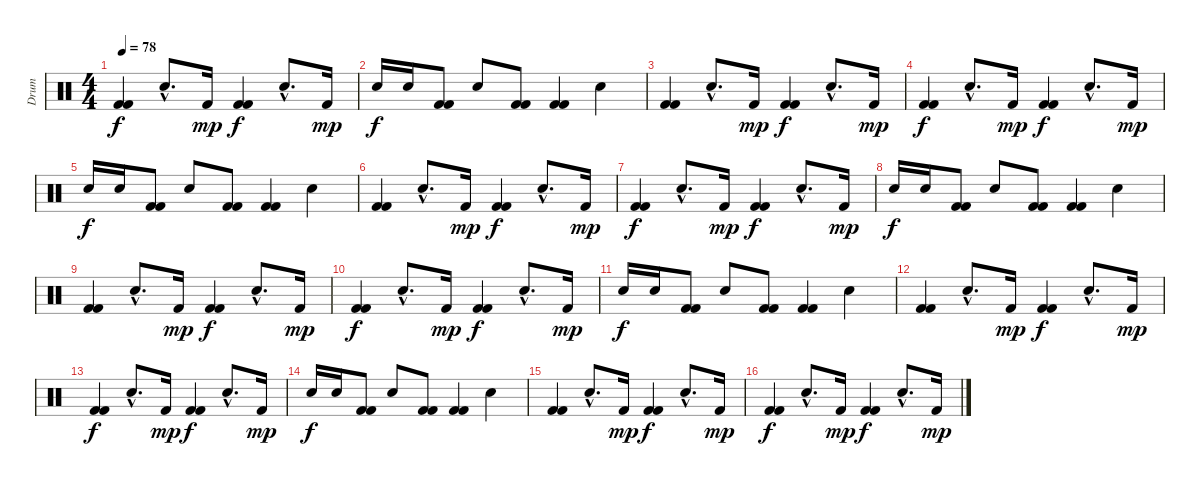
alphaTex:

\track ("Drum" "Drum") {instrument percussion}
\staff {score}
\articulation defaults
\ts (4 4)
\tempo 78
\clef neutral
\ks c
("Kick (hit) 2" "Kick (hit) 2").4{dy f} "Electric Snare (hit)"{hac}.8{d} "Kick (hit) 2".16{dy mp} ("Kick (hit) 2" "Kick (hit) 2").4{dy f} "Electric Snare (hit)"{hac}.8{d} "Kick (hit) 2".16{dy mp} |
"Electric Snare (hit)".16{dy f} "Electric Snare (hit)".16 ("Kick (hit) 2" "Kick (hit) 2").8 "Electric Snare (hit)".8 ("Kick (hit) 2" "Kick (hit) 2").8 ("Kick (hit) 2" "Kick (hit) 2").4 "Electric Snare (hit)".4 |
("Kick (hit) 2" "Kick (hit) 2").4 "Electric Snare (hit)"{hac}.8{d} "Kick (hit) 2".16{dy mp} ("Kick (hit) 2" "Kick (hit) 2").4{dy f} "Electric Snare (hit)"{hac}.8{d} "Kick (hit) 2".16{dy mp} |
("Kick (hit) 2" "Kick (hit) 2").4{dy f} "Electric Snare (hit)"{hac}.8{d} "Kick (hit) 2".16{dy mp} ("Kick (hit) 2" "Kick (hit) 2").4{dy f} "Electric Snare (hit)"{hac}.8{d} "Kick (hit) 2".16{dy mp} |
"Electric Snare (hit)".16{dy f} "Electric Snare (hit)".16 ("Kick (hit) 2" "Kick (hit) 2").8 "Electric Snare (hit)".8 ("Kick (hit) 2" "Kick (hit) 2").8 ("Kick (hit) 2" "Kick (hit) 2").4 "Electric Snare (hit)".4 |
("Kick (hit) 2" "Kick (hit) 2").4 "Electric Snare (hit)"{hac}.8{d} "Kick (hit) 2".16{dy mp} ("Kick (hit) 2" "Kick (hit) 2").4{dy f} "Electric Snare (hit)"{hac}.8{d} "Kick (hit) 2".16{dy mp} |
("Kick (hit) 2" "Kick (hit) 2").4{dy f} "Electric Snare (hit)"{hac}.8{d} "Kick (hit) 2".16{dy mp} ("Kick (hit) 2" "Kick (hit) 2").4{dy f} "Electric Snare (hit)"{hac}.8{d} "Kick (hit) 2".16{dy mp} |
"Electric Snare (hit)".16{dy f} "Electric Snare (hit)".16 ("Kick (hit) 2" "Kick (hit) 2").8 "Electric Snare (hit)".8 ("Kick (hit) 2" "Kick (hit) 2").8 ("Kick (hit) 2" "Kick (hit) 2").4 "Electric Snare (hit)".4 |
("Kick (hit) 2" "Kick (hit) 2").4 "Electric Snare (hit)"{hac}.8{d} "Kick (hit) 2".16{dy mp} ("Kick (hit) 2" "Kick (hit) 2").4{dy f} "Electric Snare (hit)"{hac}.8{d} "Kick (hit) 2".16{dy mp} |
("Kick (hit) 2" "Kick (hit) 2").4{dy f} "Electric Snare (hit)"{hac}.8{d} "Kick (hit) 2".16{dy mp} ("Kick (hit) 2" "Kick (hit) 2").4{dy f} "Electric Snare (hit)"{hac}.8{d} "Kick (hit) 2".16{dy mp} |
"Electric Snare (hit)".16{dy f} "Electric Snare (hit)".16 ("Kick (hit) 2" "Kick (hit) 2").8 "Electric Snare (hit)".8 ("Kick (hit) 2" "Kick (hit) 2").8 ("Kick (hit) 2" "Kick (hit) 2").4 "Electric Snare (hit)".4 |
("Kick (hit) 2" "Kick (hit) 2").4 "Electric Snare (hit)"{hac}.8{d} "Kick (hit) 2".16{dy mp} ("Kick (hit) 2" "Kick (hit) 2").4{dy f} "Electric Snare (hit)"{hac}.8{d} "Kick (hit) 2".16{dy mp} |
("Kick (hit) 2" "Kick (hit) 2").4{dy f} "Electric Snare (hit)"{hac}.8{d} "Kick (hit) 2".16{dy mp} ("Kick (hit) 2" "Kick (hit) 2").4{dy f} "Electric Snare (hit)"{hac}.8{d} "Kick (hit) 2".16{dy mp} |
"Electric Snare (hit)".16{dy f volume 8} "Electric Snare (hit)".16 ("Kick (hit) 2" "Kick (hit) 2").8 "Electric Snare (hit)".8 ("Kick (hit) 2" "Kick (hit) 2").8 ("Kick (hit) 2" "Kick (hit) 2").4 "Electric Snare (hit)".4 |
("Kick (hit) 2" "Kick (hit) 2").4{volume 5} "Electric Snare (hit)"{hac}.8{d} "Kick (hit) 2".16{dy mp} ("Kick (hit) 2" "Kick (hit) 2").4{dy f} "Electric Snare (hit)"{hac}.8{d} "Kick (hit) 2".16{dy mp} |
("Kick (hit) 2" "Kick (hit) 2").4{dy f volume 3} "Electric Snare (hit)"{hac}.8{d} "Kick (hit) 2".16{dy mp} ("Kick (hit) 2" "Kick (hit) 2").4{dy f volume 1} "Electric Snare (hit)"{hac}.8{d} "Kick (hit) 2".16{dy mp}
